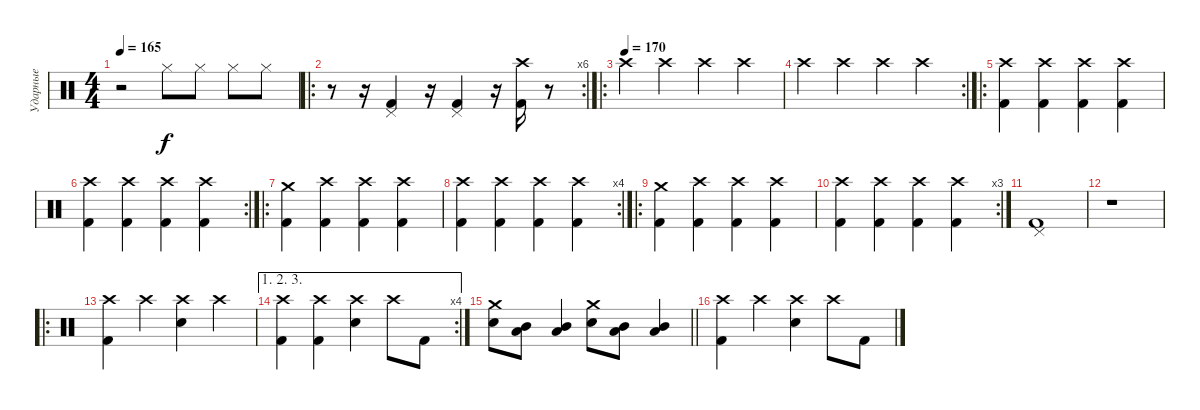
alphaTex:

\track ("Ударные" "Ударные") {instrument percussion}
\staff {score}
\articulation defaults
\ts (4 4)
\tempo 165
\tempo 95
\tempo 165
\clef neutral
\ks c
r.2{dy f} "Hi-Hat (closed)".8 "Hi-Hat (closed)".8 "Hi-Hat (closed)".8 "Hi-Hat (closed)".8 |
\ro
\rc 6
r.8 r.16 ("Pedal Hi-Hat (hit)" "Kick (hit) 2").4 r.16 ("Pedal Hi-Hat (hit)" "Kick (hit) 2").4 r.16 ("Crash high (hit)" "Kick (hit) 2").16 r.8 |
\ro
\tempo (170)
"Crash high (hit)".4 "Crash high (hit)".4 "Crash high (hit)".4 "Crash high (hit)".4 |
\rc 2 "Crash high (hit)".4 "Crash high (hit)".4 "Crash high (hit)".4 "Crash high (hit)".4
|
\ro
("Crash high (hit)" "Kick (hit) 2").4 ("Crash high (hit)" "Kick (hit) 2").4 ("Crash high (hit)" "Kick (hit) 2").4 ("Crash high (hit)" "Kick (hit) 2").4 |
\rc 2
("Crash high (hit)" "Kick (hit) 2").4 ("Crash high (hit)" "Kick (hit) 2").4 ("Crash high (hit)" "Kick (hit) 2").4 ("Crash high (hit)" "Kick (hit) 2").4 |
\ro
("Crash medium (hit)" "Kick (hit) 2").4 ("Crash high (hit)" "Kick (hit) 2").4 ("Crash high (hit)" "Kick (hit) 2").4 ("Crash high (hit)" "Kick (hit) 2").4 |
\rc 4
("Crash high (hit)" "Kick (hit) 2").4 ("Crash high (hit)" "Kick (hit) 2").4 ("Crash high (hit)" "Kick (hit) 2").4 ("Crash high (hit)" "Kick (hit) 2").4 |
\ro
("Crash medium (hit)" "Kick (hit) 2").4 ("Crash high (hit)" "Kick (hit) 2").4 ("Crash high (hit)" "Kick (hit) 2").4 ("Crash high (hit)" "Kick (hit) 2").4 |
\rc 3
("Crash high (hit)" "Kick (hit) 2").4 ("Crash high (hit)" "Kick (hit) 2").4 ("Crash high (hit)" "Kick (hit) 2").4 ("Crash high (hit)" "Kick (hit) 2").4 |
("Pedal Hi-Hat (hit)" "Kick (hit) 2").1 |
r.1 |
\ro
("Crash high (hit)" "Kick (hit) 2").4 "Crash high (hit)".4 ("Crash high (hit)" "Snare (hit) 2").4 "Crash high (hit)".4 |
\ae (1 2 3)
\rc 4
("Crash high (hit)" "Kick (hit) 2").4 ("Crash high (hit)" "Kick (hit) 2").4 ("Crash high (hit)" "Snare (hit) 2").4 "Crash high (hit)".8 "Kick (hit) 2".8 |
\barLineRight lightlight
("Crash medium (hit)" "Snare (hit) 2").8 ("Mid Tom (hit)" "Low Floor Tom (hit)").8 ("Mid Tom (hit)" "Low Floor Tom (hit)").4 ("Crash medium (hit)" "Snare (hit) 2").8 ("Mid Tom (hit)" "Low Floor Tom (hit)").8 ("Mid Tom (hit)" "Low Floor Tom (hit)").4 |
("Crash high (hit)" "Kick (hit) 2").4 "Crash high (hit)".4 ("Crash high (hit)" "Snare (hit) 2").4 "Crash high (hit)".8 "Kick (hit) 2".8
